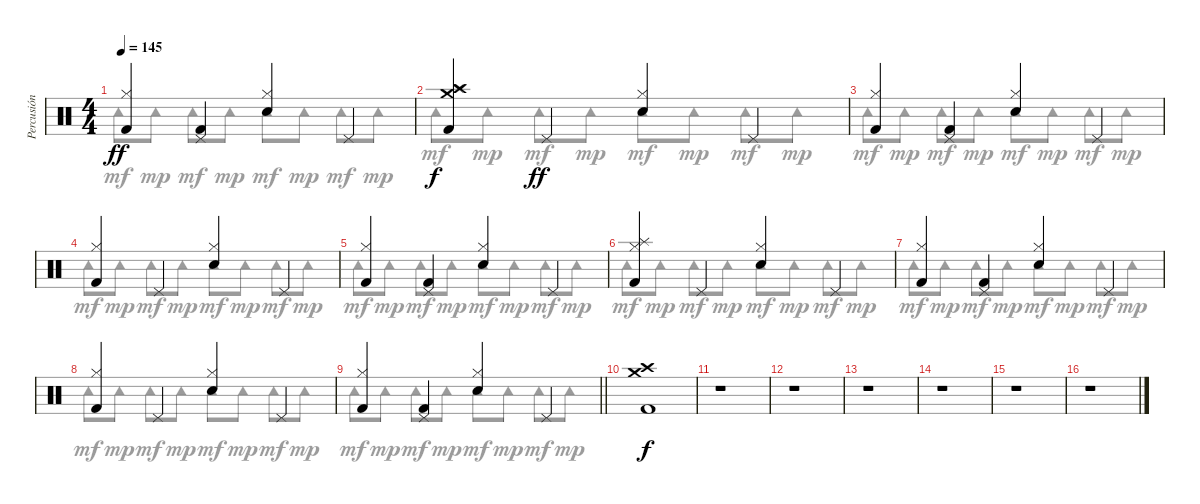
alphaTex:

\track ("Percusión" "Percusión") {instrument percussion}
\staff {score}
\articulation defaults
\voice
\ts (4 4)
\tempo 145
\clef neutral
\ks c
("Hi-Hat (closed)" "Kick (hit) 2").4{dy ff} ("Pedal Hi-Hat (hit)" "Kick (hit) 2").4 ("Hi-Hat (closed)" "Electric Snare (hit)").4 "Pedal Hi-Hat (hit)".4 |
("Crash medium (hit)" "Crash high (hit)" "Splash (hit)" "Kick (hit) 2").4{dy f} "Pedal Hi-Hat (hit)".4{dy ff} ("Hi-Hat (closed)" "Electric Snare (hit)").4 "Pedal Hi-Hat (hit)".4 |
("Hi-Hat (closed)" "Kick (hit) 2").4 ("Pedal Hi-Hat (hit)" "Kick (hit) 2").4 ("Hi-Hat (closed)" "Electric Snare (hit)").4 "Pedal Hi-Hat (hit)".4 |
("Hi-Hat (closed)" "Kick (hit) 2").4 "Pedal Hi-Hat (hit)".4 ("Hi-Hat (closed)" "Electric Snare (hit)").4 "Pedal Hi-Hat (hit)".4 |
("Hi-Hat (closed)" "Kick (hit) 2").4 ("Pedal Hi-Hat (hit)" "Kick (hit) 2").4 ("Hi-Hat (closed)" "Electric Snare (hit)").4 "Pedal Hi-Hat (hit)".4 |
("Hi-Hat (closed)" "Splash (hit)" "Kick (hit) 2").4 "Pedal Hi-Hat (hit)".4 ("Hi-Hat (closed)" "Electric Snare (hit)").4 "Pedal Hi-Hat (hit)".4 |
("Hi-Hat (closed)" "Kick (hit) 2").4 ("Pedal Hi-Hat (hit)" "Kick (hit) 2").4 ("Hi-Hat (closed)" "Electric Snare (hit)").4 "Pedal Hi-Hat (hit)".4 |
("Hi-Hat (closed)" "Kick (hit) 2").4 "Pedal Hi-Hat (hit)".4 ("Hi-Hat (closed)" "Electric Snare (hit)").4 "Pedal Hi-Hat (hit)".4 |
\barLineRight lightlight
("Hi-Hat (closed)" "Kick (hit) 2").4 ("Pedal Hi-Hat (hit)" "Kick (hit) 2").4 ("Hi-Hat (closed)" "Electric Snare (hit)").4 "Pedal Hi-Hat (hit)".4 |
("Crash medium (hit)" "Crash high (hit)" "Kick (hit) 2").1{dy f} |
r.1 |
r.1 |
r.1 |
r.1 |
r.1 |
r.1
\voice
\clef neutral
\ottava regular
\simile none
\ks c "Tambourine (hit)".8{dy mf} "Tambourine (hit)".8{dy mp} "Tambourine (hit)".8{dy mf} "Tambourine (hit)".8{dy mp} "Tambourine (hit)".8{dy mf} "Tambourine (hit)".8{dy mp} "Tambourine (hit)".8{dy mf} "Tambourine (hit)".8{dy mp}
|
"Tambourine (hit)".8{dy mf} "Tambourine (hit)".8{dy mp} "Tambourine (hit)".8{dy mf} "Tambourine (hit)".8{dy mp} "Tambourine (hit)".8{dy mf} "Tambourine (hit)".8{dy mp} "Tambourine (hit)".8{dy mf} "Tambourine (hit)".8{dy mp} |
"Tambourine (hit)".8{dy mf} "Tambourine (hit)".8{dy mp} "Tambourine (hit)".8{dy mf} "Tambourine (hit)".8{dy mp} "Tambourine (hit)".8{dy mf} "Tambourine (hit)".8{dy mp} "Tambourine (hit)".8{dy mf} "Tambourine (hit)".8{dy mp} |
"Tambourine (hit)".8{dy mf} "Tambourine (hit)".8{dy mp} "Tambourine (hit)".8{dy mf} "Tambourine (hit)".8{dy mp} "Tambourine (hit)".8{dy mf} "Tambourine (hit)".8{dy mp} "Tambourine (hit)".8{dy mf} "Tambourine (hit)".8{dy mp} |
"Tambourine (hit)".8{dy mf} "Tambourine (hit)".8{dy mp} "Tambourine (hit)".8{dy mf} "Tambourine (hit)".8{dy mp} "Tambourine (hit)".8{dy mf} "Tambourine (hit)".8{dy mp} "Tambourine (hit)".8{dy mf} "Tambourine (hit)".8{dy mp} |
"Tambourine (hit)".8{dy mf} "Tambourine (hit)".8{dy mp} "Tambourine (hit)".8{dy mf} "Tambourine (hit)".8{dy mp} "Tambourine (hit)".8{dy mf} "Tambourine (hit)".8{dy mp} "Tambourine (hit)".8{dy mf} "Tambourine (hit)".8{dy mp} |
"Tambourine (hit)".8{dy mf} "Tambourine (hit)".8{dy mp} "Tambourine (hit)".8{dy mf} "Tambourine (hit)".8{dy mp} "Tambourine (hit)".8{dy mf} "Tambourine (hit)".8{dy mp} "Tambourine (hit)".8{dy mf} "Tambourine (hit)".8{dy mp} |
"Tambourine (hit)".8{dy mf} "Tambourine (hit)".8{dy mp} "Tambourine (hit)".8{dy mf} "Tambourine (hit)".8{dy mp} "Tambourine (hit)".8{dy mf} "Tambourine (hit)".8{dy mp} "Tambourine (hit)".8{dy mf} "Tambourine (hit)".8{dy mp} |
\barLineRight lightlight "Tambourine (hit)".8{dy mf} "Tambourine (hit)".8{dy mp} "Tambourine (hit)".8{dy mf} "Tambourine (hit)".8{dy mp} "Tambourine (hit)".8{dy mf} "Tambourine (hit)".8{dy mp} "Tambourine (hit)".8{dy mf} "Tambourine (hit)".8{dy mp}
|
|
|
|
|
|
|
